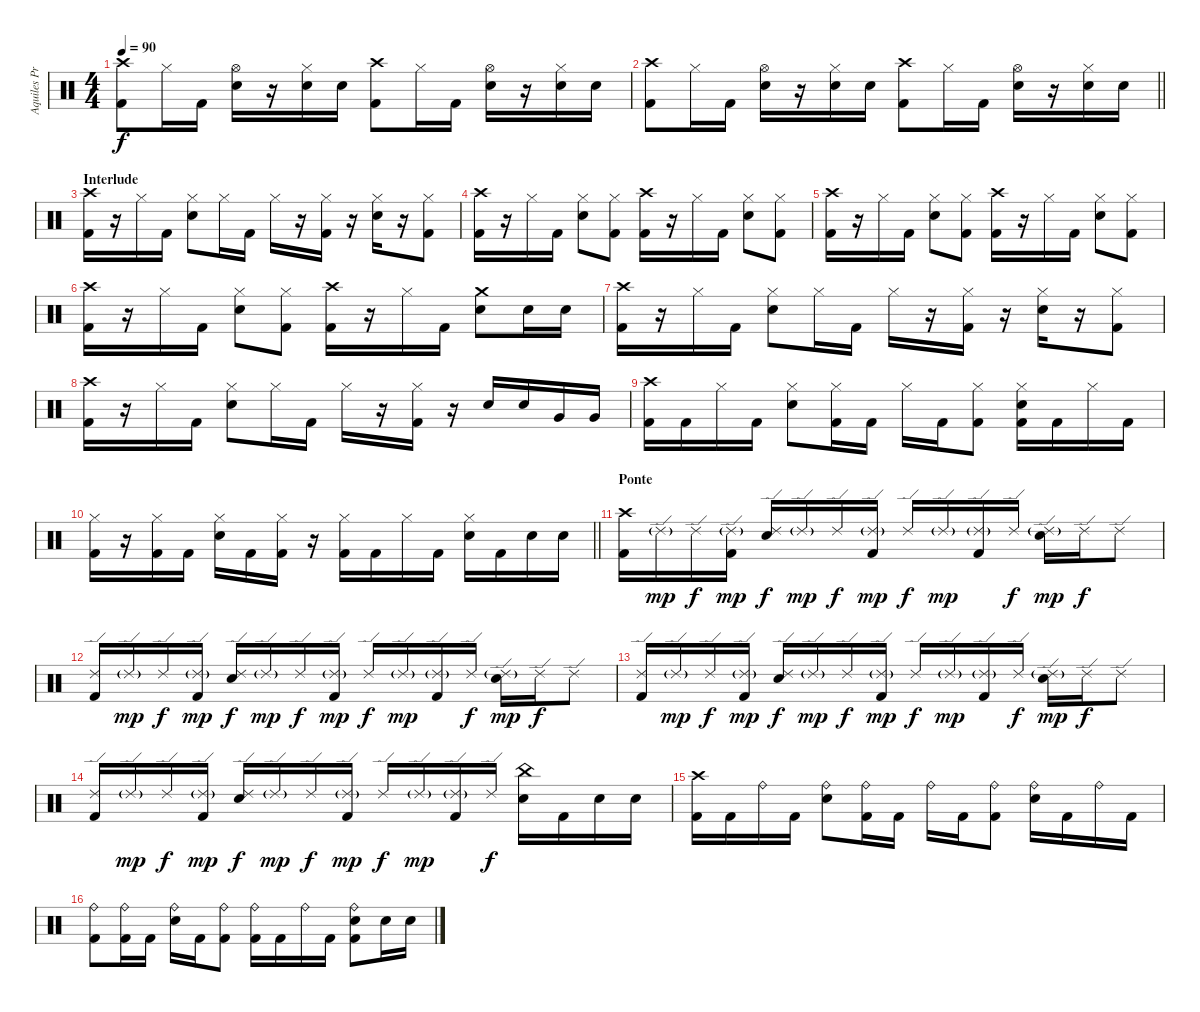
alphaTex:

\track ("Aquiles Priester" "Aquiles Pr") {instrument percussion}
\staff {score}
\articulation defaults
\ts (4 4)
\tempo 90
\clef neutral
\ks c
("Crash high (hit)" "Kick (hit) 2").8{dy f} "Hi-Hat (closed)".16 "Kick (hit) 2".16 ("Hi-Hat (open)" "Electric Snare (hit)").16 r.16 ("Hi-Hat (closed)" "Electric Snare (hit)").16 "Electric Snare (hit)".16 ("Crash high (hit)" "Kick (hit) 2").8 "Hi-Hat (closed)".16 "Kick (hit) 2".16 ("Hi-Hat (open)" "Electric Snare (hit)").16 r.16 ("Hi-Hat (closed)" "Electric Snare (hit)").16 "Electric Snare (hit)".16 |
\barLineRight lightlight
("Crash high (hit)" "Kick (hit) 2").8 "Hi-Hat (closed)".16 "Kick (hit) 2".16 ("Hi-Hat (open)" "Electric Snare (hit)").16 r.16 ("Hi-Hat (closed)" "Electric Snare (hit)").16 "Electric Snare (hit)".16 ("Crash high (hit)" "Kick (hit) 2").8 "Hi-Hat (closed)".16 "Kick (hit) 2".16 ("Hi-Hat (open)" "Electric Snare (hit)").16 r.16 ("Hi-Hat (closed)" "Electric Snare (hit)").16 "Electric Snare (hit)".16 |
\section ("" "Interlude")
("Crash high (hit)" "Kick (hit) 2").16 r.16 "Hi-Hat (closed)".16 "Kick (hit) 2".16 ("Hi-Hat (closed)" "Electric Snare (hit)").8 "Hi-Hat (closed)".16 "Kick (hit) 2".16 "Hi-Hat (closed)".16 r.16 ("Hi-Hat (closed)" "Kick (hit) 2").16 r.16 ("Hi-Hat (closed)" "Electric Snare (hit)").16 r.16 ("Hi-Hat (closed)" "Kick (hit) 2").8 |
("Crash high (hit)" "Kick (hit) 2").16 r.16 "Hi-Hat (closed)".16 "Kick (hit) 2".16 ("Hi-Hat (closed)" "Electric Snare (hit)").8 ("Hi-Hat (closed)" "Kick (hit) 2").8 ("Crash high (hit)" "Kick (hit) 2").16 r.16 "Hi-Hat (closed)".16 "Kick (hit) 2".16 ("Hi-Hat (closed)" "Electric Snare (hit)").8 ("Hi-Hat (closed)" "Kick (hit) 2").8 |
("Crash high (hit)" "Kick (hit) 2").16 r.16 "Hi-Hat (closed)".16 "Kick (hit) 2".16 ("Hi-Hat (closed)" "Electric Snare (hit)").8 ("Hi-Hat (closed)" "Kick (hit) 2").8 ("Crash high (hit)" "Kick (hit) 2").16 r.16 "Hi-Hat (closed)".16 "Kick (hit) 2".16 ("Hi-Hat (closed)" "Electric Snare (hit)").8 ("Hi-Hat (closed)" "Kick (hit) 2").8 |
("Crash high (hit)" "Kick (hit) 2").16 r.16 "Hi-Hat (closed)".16 "Kick (hit) 2".16 ("Hi-Hat (closed)" "Electric Snare (hit)").8 ("Hi-Hat (closed)" "Kick (hit) 2").8 ("Crash high (hit)" "Kick (hit) 2").16 r.16 "Hi-Hat (closed)".16 "Kick (hit) 2".16 ("Crash medium (hit)" "Electric Snare (hit)").8 "Electric Snare (hit)".16 "Electric Snare (hit)".16 |
("Crash high (hit)" "Kick (hit) 2").16 r.16 "Hi-Hat (closed)".16 "Kick (hit) 2".16 ("Hi-Hat (closed)" "Electric Snare (hit)").8 "Hi-Hat (closed)".16 "Kick (hit) 2".16 "Hi-Hat (closed)".16 r.16 ("Hi-Hat (closed)" "Kick (hit) 2").16 r.16 ("Hi-Hat (closed)" "Electric Snare (hit)").16 r.16 ("Hi-Hat (closed)" "Kick (hit) 2").8 |
("Crash high (hit)" "Kick (hit) 2").16 r.16 "Hi-Hat (closed)".16 "Kick (hit) 2".16 ("Hi-Hat (closed)" "Electric Snare (hit)").8 "Hi-Hat (closed)".16 "Kick (hit) 2".16 "Hi-Hat (closed)".16 r.16 ("Hi-Hat (closed)" "Kick (hit) 2").16 r.16 "Electric Snare (hit)".16 "Electric Snare (hit)".16 "Very Low Tom (hit)".16 "Very Low Tom (hit)".16 |
("Crash high (hit)" "Kick (hit) 2").16 "Kick (hit) 2".16 "Hi-Hat (closed)".16 "Kick (hit) 2".16 ("Hi-Hat (closed)" "Electric Snare (hit)").8 ("Hi-Hat (closed)" "Kick (hit) 2").16 "Kick (hit) 2".16 "Hi-Hat (closed)".16 "Kick (hit) 2".16 ("Hi-Hat (closed)" "Kick (hit) 2").8 ("Hi-Hat (closed)" "Electric Snare (hit)" "Kick (hit) 2").16 "Kick (hit) 2".16 "Hi-Hat (closed)".16 "Kick (hit) 2".16 |
\barLineRight lightlight
("Hi-Hat (closed)" "Kick (hit) 2").16 r.16 ("Hi-Hat (closed)" "Kick (hit) 2").16 "Kick (hit) 2".16 ("Hi-Hat (closed)" "Electric Snare (hit)").16 "Kick (hit) 2".16 ("Hi-Hat (closed)" "Kick (hit) 2").16 r.16 ("Hi-Hat (closed)" "Kick (hit) 2").16 "Kick (hit) 2".16 "Hi-Hat (closed)".16 "Kick (hit) 2".16 ("Hi-Hat (closed)" "Electric Snare (hit)").16 "Kick (hit) 2".16 "Electric Snare (hit)".16 "Electric Snare (hit)".16 |
\section ("" "Ponte")
("Crash high (hit)" "Kick (hit) 2").16 "Ride (edge) 2"{g}.16{dy mp} "Ride (edge) 2".16{dy f} ("Ride (edge) 2"{g} "Kick (hit) 2").16{dy mp} ("Ride (edge) 2" "Electric Snare (hit)").16{dy f} "Ride (edge) 2"{g}.16{dy mp} "Ride (edge) 2".16{dy f} ("Ride (edge) 2"{g} "Kick (hit) 2").16{dy mp} "Ride (edge) 2".16{dy f} "Ride (edge) 2"{g}.16{dy mp} ("Ride (edge) 2"{g} "Kick (hit) 2").16 "Ride (edge) 2".16{dy f} ("Ride (edge) 2"{g} "Electric Snare (hit)").16{dy mp} "Ride (edge) 2".16{dy f} "Ride (edge) 2".8 |
("Ride (edge) 2" "Kick (hit) 2").16 "Ride (edge) 2"{g}.16{dy mp} "Ride (edge) 2".16{dy f} ("Ride (edge) 2"{g} "Kick (hit) 2").16{dy mp} ("Ride (edge) 2" "Electric Snare (hit)").16{dy f} "Ride (edge) 2"{g}.16{dy mp} "Ride (edge) 2".16{dy f} ("Ride (edge) 2"{g} "Kick (hit) 2").16{dy mp} "Ride (edge) 2".16{dy f} "Ride (edge) 2"{g}.16{dy mp} ("Ride (edge) 2"{g} "Kick (hit) 2").16 "Ride (edge) 2".16{dy f} ("Ride (edge) 2"{g} "Electric Snare (hit)").16{dy mp} "Ride (edge) 2".16{dy f} "Ride (edge) 2".8 |
("Ride (edge) 2" "Kick (hit) 2").16 "Ride (edge) 2"{g}.16{dy mp} "Ride (edge) 2".16{dy f} ("Ride (edge) 2"{g} "Kick (hit) 2").16{dy mp} ("Ride (edge) 2" "Electric Snare (hit)").16{dy f} "Ride (edge) 2"{g}.16{dy mp} "Ride (edge) 2".16{dy f} ("Ride (edge) 2"{g} "Kick (hit) 2").16{dy mp} "Ride (edge) 2".16{dy f} "Ride (edge) 2"{g}.16{dy mp} ("Ride (edge) 2"{g} "Kick (hit) 2").16 "Ride (edge) 2".16{dy f} ("Ride (edge) 2"{g} "Electric Snare (hit)").16{dy mp} "Ride (edge) 2".16{dy f} "Ride (edge) 2".8 |
("Ride (edge) 2" "Kick (hit) 2").16 "Ride (edge) 2"{g}.16{dy mp} "Ride (edge) 2".16{dy f} ("Ride (edge) 2"{g} "Kick (hit) 2").16{dy mp} ("Ride (edge) 2" "Electric Snare (hit)").16{dy f} "Ride (edge) 2"{g}.16{dy mp} "Ride (edge) 2".16{dy f} ("Ride (edge) 2"{g} "Kick (hit) 2").16{dy mp} "Ride (edge) 2".16{dy f} "Ride (edge) 2"{g}.16{dy mp} ("Ride (edge) 2"{g} "Kick (hit) 2").16 "Ride (edge) 2".16{dy f} ("China (hit)" "Electric Snare (hit)").16 "Kick (hit) 2".16 "Electric Snare (hit)".16 "Electric Snare (hit)".16 |
("Crash high (hit)" "Kick (hit) 2").16 "Kick (hit) 2".16 "Ride (bell)".16 "Kick (hit) 2".16 ("Ride (bell)" "Electric Snare (hit)").8 ("Ride (bell)" "Kick (hit) 2").16 "Kick (hit) 2".16 "Ride (bell)".16 "Kick (hit) 2".16 ("Ride (bell)" "Kick (hit) 2").8 ("Ride (bell)" "Electric Snare (hit)").16 "Kick (hit) 2".16 "Ride (bell)".16 "Kick (hit) 2".16 |
("Ride (bell)" "Kick (hit) 2").8 ("Ride (bell)" "Kick (hit) 2").16 "Kick (hit) 2".16 ("Ride (bell)" "Electric Snare (hit)").16 "Kick (hit) 2".16 ("Ride (bell)" "Kick (hit) 2").8 ("Ride (bell)" "Kick (hit) 2").16 "Kick (hit) 2".16 "Ride (bell)".16 "Kick (hit) 2".16 ("Ride (bell)" "Electric Snare (hit)" "Kick (hit) 2").8 "Electric Snare (hit)".16 "Electric Snare (hit)".16
